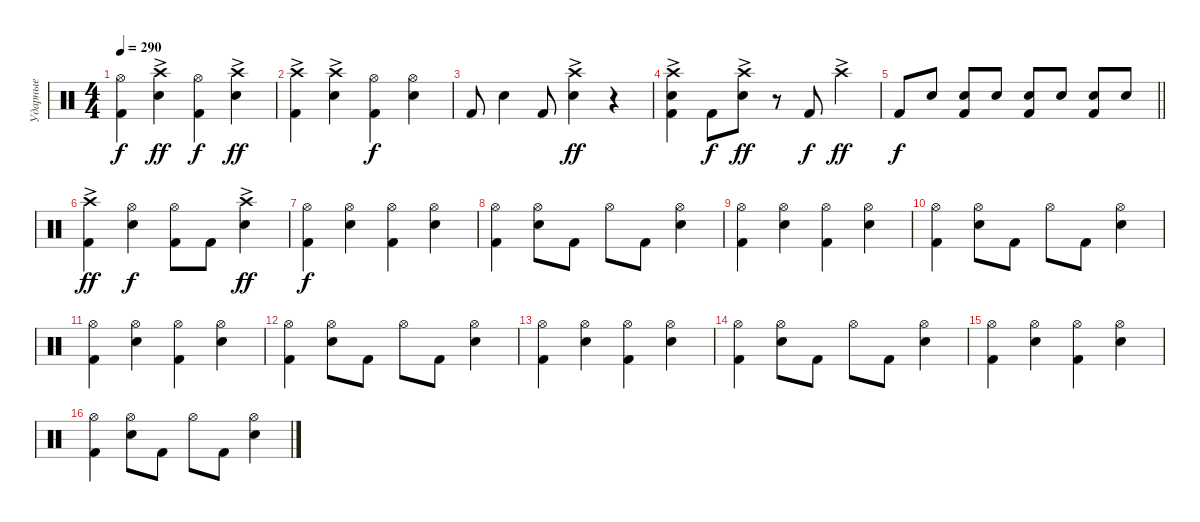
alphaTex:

\track ("Ударные" "Ударные") {instrument percussion}
\staff {score}
\articulation defaults
\ts (4 4)
\tempo 290
\clef neutral
\ks c
("Kick (hit) 2" "Hi-Hat (open)").4{dy f} ("Snare (hit) 2" "Crash high (hit)"{ac}).4{dy ff} ("Kick (hit) 2" "Hi-Hat (open)").4{dy f} ("Snare (hit) 2" "Crash high (hit)"{ac}).4{dy ff} |
("Kick (hit) 2" "Crash high (hit)"{ac}).4 ("Snare (hit) 2" "Crash high (hit)"{ac}).4 ("Kick (hit) 2" "Hi-Hat (open)").4{dy f} ("Snare (hit) 2" "Hi-Hat (open)").4 |
"Kick (hit) 2".8 "Snare (hit) 2".4 "Kick (hit) 2".8 ("Snare (hit) 2" "Crash high (hit)"{ac}).4{dy ff} r.4 |
("Kick (hit) 2" "Snare (hit) 2" "Crash high (hit)"{ac}).4 "Kick (hit) 2".8{dy f} ("Snare (hit) 2" "Crash high (hit)"{ac}).8{dy ff} r.8 "Kick (hit) 2".8{dy f} "Crash high (hit)"{ac}.4{dy ff} |
\barLineRight lightlight "Kick (hit) 2".8{dy f} "Snare (hit) 2".8
("Kick (hit) 2" "Snare (hit) 2").8 "Snare (hit) 2".8 ("Kick (hit) 2" "Snare (hit) 2").8 "Snare (hit) 2".8 ("Kick (hit) 2" "Snare (hit) 2").8 "Snare (hit) 2".8 |
("Kick (hit) 2" "Crash high (hit)"{ac}).4{dy ff} ("Snare (hit) 2" "Hi-Hat (open)").4{dy f} ("Kick (hit) 2" "Hi-Hat (open)").8 "Kick (hit) 2".8 ("Snare (hit) 2" "Crash high (hit)"{ac}).4{dy ff} |
("Kick (hit) 2" "Hi-Hat (open)").4{dy f} ("Snare (hit) 2" "Hi-Hat (open)").4 ("Kick (hit) 2" "Hi-Hat (open)").4 ("Snare (hit) 2" "Hi-Hat (open)").4 |
("Kick (hit) 2" "Hi-Hat (open)").4 ("Snare (hit) 2" "Hi-Hat (open)").8 "Kick (hit) 2".8 "Hi-Hat (open)".8 "Kick (hit) 2".8 ("Snare (hit) 2" "Hi-Hat (open)").4 |
("Kick (hit) 2" "Hi-Hat (open)").4 ("Snare (hit) 2" "Hi-Hat (open)").4 ("Kick (hit) 2" "Hi-Hat (open)").4 ("Snare (hit) 2" "Hi-Hat (open)").4 |
("Kick (hit) 2" "Hi-Hat (open)").4 ("Snare (hit) 2" "Hi-Hat (open)").8 "Kick (hit) 2".8 "Hi-Hat (open)".8 "Kick (hit) 2".8 ("Snare (hit) 2" "Hi-Hat (open)").4 |
("Kick (hit) 2" "Hi-Hat (open)").4 ("Snare (hit) 2" "Hi-Hat (open)").4 ("Kick (hit) 2" "Hi-Hat (open)").4 ("Snare (hit) 2" "Hi-Hat (open)").4 |
("Kick (hit) 2" "Hi-Hat (open)").4 ("Snare (hit) 2" "Hi-Hat (open)").8 "Kick (hit) 2".8 "Hi-Hat (open)".8 "Kick (hit) 2".8 ("Snare (hit) 2" "Hi-Hat (open)").4 |
("Kick (hit) 2" "Hi-Hat (open)").4 ("Snare (hit) 2" "Hi-Hat (open)").4 ("Kick (hit) 2" "Hi-Hat (open)").4 ("Snare (hit) 2" "Hi-Hat (open)").4 |
("Kick (hit) 2" "Hi-Hat (open)").4 ("Snare (hit) 2" "Hi-Hat (open)").8 "Kick (hit) 2".8 "Hi-Hat (open)".8 "Kick (hit) 2".8 ("Snare (hit) 2" "Hi-Hat (open)").4 |
("Kick (hit) 2" "Hi-Hat (open)").4 ("Snare (hit) 2" "Hi-Hat (open)").4 ("Kick (hit) 2" "Hi-Hat (open)").4 ("Snare (hit) 2" "Hi-Hat (open)").4 |
("Kick (hit) 2" "Hi-Hat (open)").4 ("Snare (hit) 2" "Hi-Hat (open)").8 "Kick (hit) 2".8 "Hi-Hat (open)".8 "Kick (hit) 2".8 ("Snare (hit) 2" "Hi-Hat (open)").4
